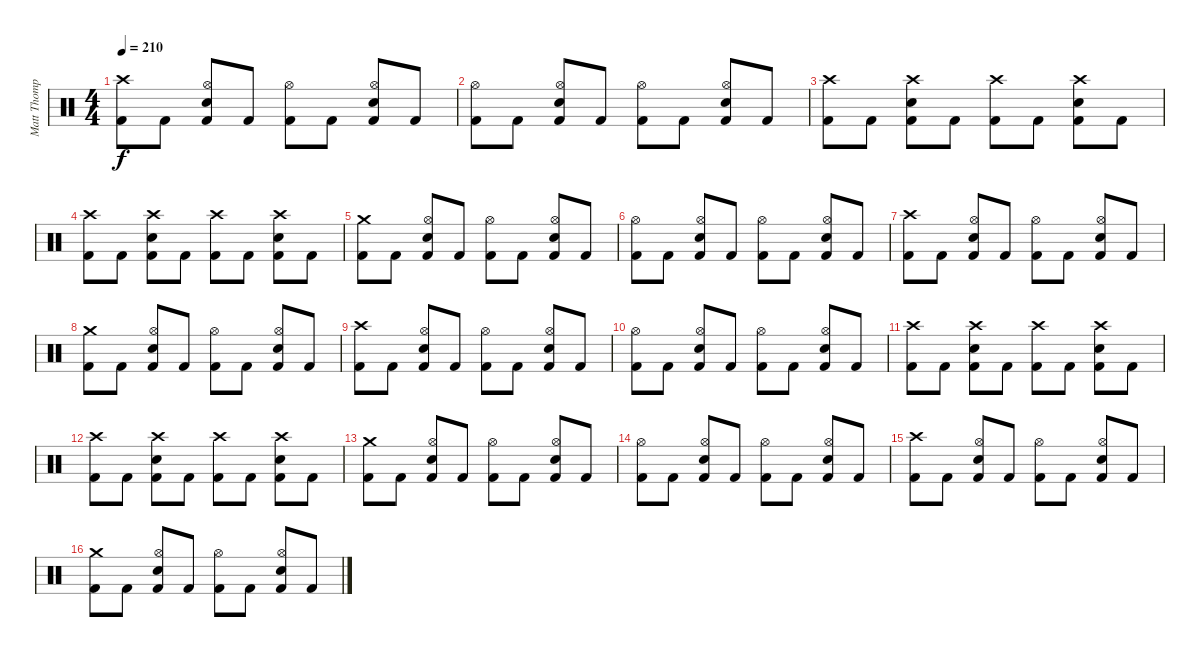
\track ("Matt Thompson" "Matt Thomp") {instrument percussion}
\staff {score}
\articulation defaults
\ts (4 4)
\tempo 210
\clef neutral
\ks c
("Crash high (hit)" "Kick (hit) 2").8{dy f} "Kick (hit) 2".8 ("Hi-Hat (open)" "Electric Snare (hit)" "Kick (hit) 2").8 "Kick (hit) 2".8 ("Hi-Hat (open)" "Kick (hit) 2").8 "Kick (hit) 2".8 ("Hi-Hat (open)" "Electric Snare (hit)" "Kick (hit) 2").8 "Kick (hit) 2".8 |
("Hi-Hat (open)" "Kick (hit) 2").8 "Kick (hit) 2".8 ("Hi-Hat (open)" "Electric Snare (hit)" "Kick (hit) 2").8 "Kick (hit) 2".8 ("Hi-Hat (open)" "Kick (hit) 2").8 "Kick (hit) 2".8 ("Hi-Hat (open)" "Electric Snare (hit)" "Kick (hit) 2").8 "Kick (hit) 2".8 |
("Crash high (hit)" "Kick (hit) 2").8 "Kick (hit) 2".8 ("Crash high (hit)" "Electric Snare (hit)" "Kick (hit) 2").8 "Kick (hit) 2".8 ("Crash high (hit)" "Kick (hit) 2").8 "Kick (hit) 2".8 ("Crash high (hit)" "Electric Snare (hit)" "Kick (hit) 2").8 "Kick (hit) 2".8 |
("Crash high (hit)" "Kick (hit) 2").8 "Kick (hit) 2".8 ("Crash high (hit)" "Electric Snare (hit)" "Kick (hit) 2").8 "Kick (hit) 2".8 ("Crash high (hit)" "Kick (hit) 2").8 "Kick (hit) 2".8 ("Crash high (hit)" "Electric Snare (hit)" "Kick (hit) 2").8 "Kick (hit) 2".8 |
("Crash medium (hit)" "Kick (hit) 2").8 "Kick (hit) 2".8 ("Hi-Hat (open)" "Electric Snare (hit)" "Kick (hit) 2").8 "Kick (hit) 2".8 ("Hi-Hat (open)" "Kick (hit) 2").8 "Kick (hit) 2".8 ("Hi-Hat (open)" "Electric Snare (hit)" "Kick (hit) 2").8 "Kick (hit) 2".8 |
("Hi-Hat (open)" "Kick (hit) 2").8 "Kick (hit) 2".8 ("Hi-Hat (open)" "Electric Snare (hit)" "Kick (hit) 2").8 "Kick (hit) 2".8 ("Hi-Hat (open)" "Kick (hit) 2").8 "Kick (hit) 2".8 ("Hi-Hat (open)" "Electric Snare (hit)" "Kick (hit) 2").8 "Kick (hit) 2".8 |
("Crash high (hit)" "Kick (hit) 2").8 "Kick (hit) 2".8 ("Hi-Hat (open)" "Electric Snare (hit)" "Kick (hit) 2").8 "Kick (hit) 2".8 ("Hi-Hat (open)" "Kick (hit) 2").8 "Kick (hit) 2".8 ("Hi-Hat (open)" "Electric Snare (hit)" "Kick (hit) 2").8 "Kick (hit) 2".8 |
("Crash medium (hit)" "Kick (hit) 2").8 "Kick (hit) 2".8 ("Hi-Hat (open)" "Electric Snare (hit)" "Kick (hit) 2").8 "Kick (hit) 2".8 ("Hi-Hat (open)" "Kick (hit) 2").8 "Kick (hit) 2".8 ("Hi-Hat (open)" "Electric Snare (hit)" "Kick (hit) 2").8 "Kick (hit) 2".8 |
("Crash high (hit)" "Kick (hit) 2").8 "Kick (hit) 2".8 ("Hi-Hat (open)" "Electric Snare (hit)" "Kick (hit) 2").8 "Kick (hit) 2".8 ("Hi-Hat (open)" "Kick (hit) 2").8 "Kick (hit) 2".8 ("Hi-Hat (open)" "Electric Snare (hit)" "Kick (hit) 2").8 "Kick (hit) 2".8 |
("Hi-Hat (open)" "Kick (hit) 2").8 "Kick (hit) 2".8 ("Hi-Hat (open)" "Electric Snare (hit)" "Kick (hit) 2").8 "Kick (hit) 2".8 ("Hi-Hat (open)" "Kick (hit) 2").8 "Kick (hit) 2".8 ("Hi-Hat (open)" "Electric Snare (hit)" "Kick (hit) 2").8 "Kick (hit) 2".8 |
("Crash high (hit)" "Kick (hit) 2").8 "Kick (hit) 2".8 ("Crash high (hit)" "Electric Snare (hit)" "Kick (hit) 2").8 "Kick (hit) 2".8 ("Crash high (hit)" "Kick (hit) 2").8 "Kick (hit) 2".8 ("Crash high (hit)" "Electric Snare (hit)" "Kick (hit) 2").8 "Kick (hit) 2".8 |
("Crash high (hit)" "Kick (hit) 2").8 "Kick (hit) 2".8 ("Crash high (hit)" "Electric Snare (hit)" "Kick (hit) 2").8 "Kick (hit) 2".8 ("Crash high (hit)" "Kick (hit) 2").8 "Kick (hit) 2".8 ("Crash high (hit)" "Electric Snare (hit)" "Kick (hit) 2").8 "Kick (hit) 2".8 |
("Crash medium (hit)" "Kick (hit) 2").8 "Kick (hit) 2".8 ("Hi-Hat (open)" "Electric Snare (hit)" "Kick (hit) 2").8 "Kick (hit) 2".8 ("Hi-Hat (open)" "Kick (hit) 2").8 "Kick (hit) 2".8 ("Hi-Hat (open)" "Electric Snare (hit)" "Kick (hit) 2").8 "Kick (hit) 2".8 |
("Hi-Hat (open)" "Kick (hit) 2").8 "Kick (hit) 2".8 ("Hi-Hat (open)" "Electric Snare (hit)" "Kick (hit) 2").8 "Kick (hit) 2".8 ("Hi-Hat (open)" "Kick (hit) 2").8 "Kick (hit) 2".8 ("Hi-Hat (open)" "Electric Snare (hit)" "Kick (hit) 2").8 "Kick (hit) 2".8 |
("Crash high (hit)" "Kick (hit) 2").8 "Kick (hit) 2".8 ("Hi-Hat (open)" "Electric Snare (hit)" "Kick (hit) 2").8 "Kick (hit) 2".8 ("Hi-Hat (open)" "Kick (hit) 2").8 "Kick (hit) 2".8 ("Hi-Hat (open)" "Electric Snare (hit)" "Kick (hit) 2").8 "Kick (hit) 2".8 |
("Crash medium (hit)" "Kick (hit) 2").8 "Kick (hit) 2".8 ("Hi-Hat (open)" "Electric Snare (hit)" "Kick (hit) 2").8 "Kick (hit) 2".8 ("Hi-Hat (open)" "Kick (hit) 2").8 "Kick (hit) 2".8 ("Hi-Hat (open)" "Electric Snare (hit)" "Kick (hit) 2").8 "Kick (hit) 2".8
